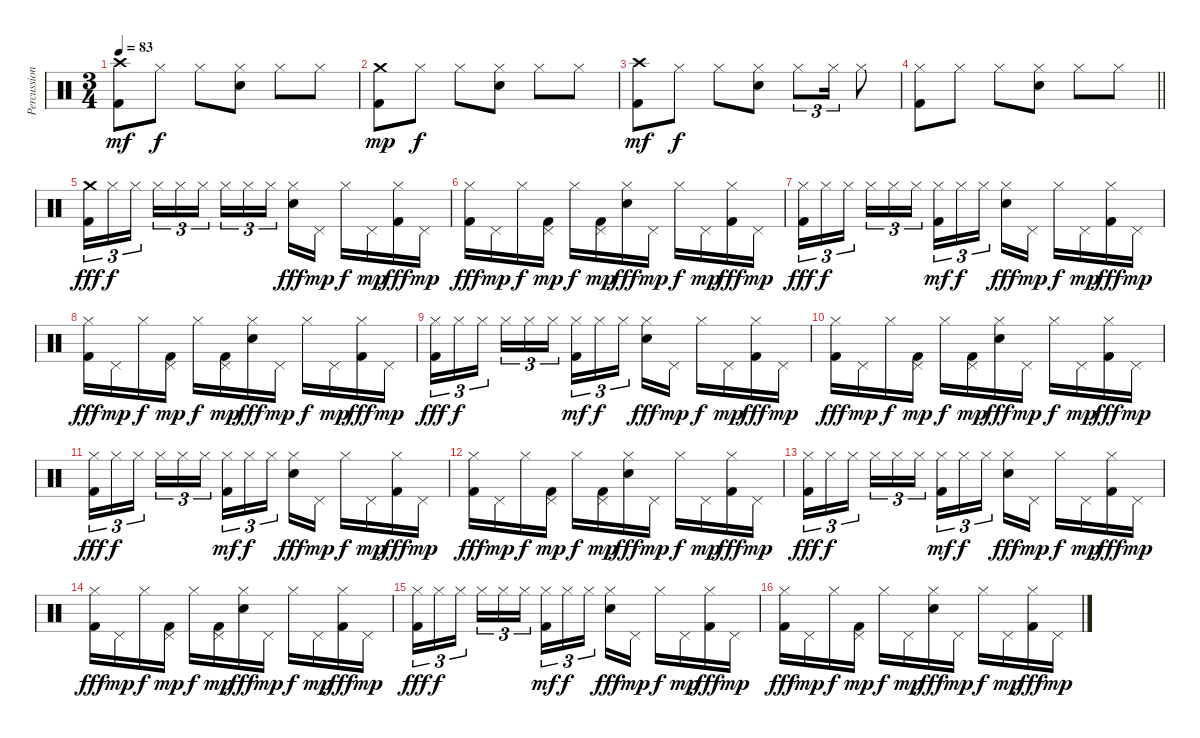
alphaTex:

\track ("Percussions" "Percussion") {instrument percussion}
\staff {score}
\articulation defaults
\ts (3 4)
\tempo 83
\clef neutral
\ks c
("Kick (hit) 2" "Crash high (hit)").8{dy mf} "Hi-Hat (closed)".8{dy f} "Hi-Hat (closed)".8 ("Electric Snare (hit)" "Hi-Hat (closed)").8 "Hi-Hat (closed)".8 "Hi-Hat (closed)".8 |
("Kick (hit) 2" "Crash medium (hit)").8{dy mp} "Hi-Hat (closed)".8{dy f} "Hi-Hat (closed)".8 ("Electric Snare (hit)" "Hi-Hat (closed)").8 "Hi-Hat (closed)".8 "Hi-Hat (closed)".8 |
("Kick (hit) 2" "Crash high (hit)").8{dy mf} "Hi-Hat (closed)".8{dy f} "Hi-Hat (closed)".8 ("Electric Snare (hit)" "Hi-Hat (closed)").8 "Hi-Hat (closed)".8{tu (3 2)} "Hi-Hat (closed)".16{tu (3 2)} "Hi-Hat (closed)".8 |
\barLineRight lightlight
("Kick (hit) 2" "Hi-Hat (closed)").8 "Hi-Hat (closed)".8 "Hi-Hat (closed)".8 ("Electric Snare (hit)" "Hi-Hat (closed)").8 "Hi-Hat (closed)".8 "Hi-Hat (closed)".8 |
\section ("" "")
("Kick (hit) 2" "Crash medium (hit)").16{tu (3 2) dy fff} "Hi-Hat (closed)".16{tu (3 2) dy f} "Hi-Hat (closed)".16{tu (3 2) beam splitsecondary} "Hi-Hat (closed)".16{tu (3 2)} "Hi-Hat (closed)".16{tu (3 2)} "Hi-Hat (closed)".16{tu (3 2)} "Hi-Hat (closed)".16{tu (3 2)} "Hi-Hat (closed)".16{tu (3 2)} "Hi-Hat (closed)".16{tu (3 2) beam splitsecondary} ("Electric Snare (hit)" "Hi-Hat (closed)").16{dy fff} "Pedal Hi-Hat (hit)".16{dy mp} "Hi-Hat (closed)".16{dy f} "Pedal Hi-Hat (hit)".16{dy mp} ("Kick (hit) 2" "Hi-Hat (closed)").16{dy fff} "Pedal Hi-Hat (hit)".16{dy mp} |
("Kick (hit) 2" "Hi-Hat (closed)").16{dy fff} "Pedal Hi-Hat (hit)".16{dy mp} "Hi-Hat (closed)".16{dy f} ("Kick (hit) 2" "Pedal Hi-Hat (hit)").16{dy mp} "Hi-Hat (closed)".16{dy f} ("Kick (hit) 2" "Pedal Hi-Hat (hit)").16{dy mp} ("Electric Snare (hit)" "Hi-Hat (closed)").16{dy fff} "Pedal Hi-Hat (hit)".16{dy mp} "Hi-Hat (closed)".16{dy f} "Pedal Hi-Hat (hit)".16{dy mp} ("Kick (hit) 2" "Hi-Hat (closed)").16{dy fff} "Pedal Hi-Hat (hit)".16{dy mp} |
("Kick (hit) 2" "Hi-Hat (closed)").16{tu (3 2) dy fff} "Hi-Hat (closed)".16{tu (3 2) dy f} "Hi-Hat (closed)".16{tu (3 2) beam splitsecondary} "Hi-Hat (closed)".16{tu (3 2)} "Hi-Hat (closed)".16{tu (3 2)} "Hi-Hat (closed)".16{tu (3 2)} ("Kick (hit) 2" "Hi-Hat (closed)").16{tu (3 2) dy mf} "Hi-Hat (closed)".16{tu (3 2) dy f} "Hi-Hat (closed)".16{tu (3 2) beam splitsecondary} ("Electric Snare (hit)" "Hi-Hat (closed)").16{dy fff} "Pedal Hi-Hat (hit)".16{dy mp} "Hi-Hat (closed)".16{dy f} "Pedal Hi-Hat (hit)".16{dy mp} ("Kick (hit) 2" "Hi-Hat (closed)").16{dy fff} "Pedal Hi-Hat (hit)".16{dy mp} |
("Kick (hit) 2" "Hi-Hat (closed)").16{dy fff} "Pedal Hi-Hat (hit)".16{dy mp} "Hi-Hat (closed)".16{dy f} ("Kick (hit) 2" "Pedal Hi-Hat (hit)").16{dy mp} "Hi-Hat (closed)".16{dy f} ("Kick (hit) 2" "Pedal Hi-Hat (hit)").16{dy mp} ("Electric Snare (hit)" "Hi-Hat (closed)").16{dy fff} "Pedal Hi-Hat (hit)".16{dy mp} "Hi-Hat (closed)".16{dy f} "Pedal Hi-Hat (hit)".16{dy mp} ("Kick (hit) 2" "Hi-Hat (closed)").16{dy fff} "Pedal Hi-Hat (hit)".16{dy mp} |
("Kick (hit) 2" "Hi-Hat (closed)").16{tu (3 2) dy fff} "Hi-Hat (closed)".16{tu (3 2) dy f} "Hi-Hat (closed)".16{tu (3 2) beam splitsecondary} "Hi-Hat (closed)".16{tu (3 2)} "Hi-Hat (closed)".16{tu (3 2)} "Hi-Hat (closed)".16{tu (3 2)} ("Kick (hit) 2" "Hi-Hat (closed)").16{tu (3 2) dy mf} "Hi-Hat (closed)".16{tu (3 2) dy f} "Hi-Hat (closed)".16{tu (3 2) beam splitsecondary} ("Electric Snare (hit)" "Hi-Hat (closed)").16{dy fff} "Pedal Hi-Hat (hit)".16{dy mp} "Hi-Hat (closed)".16{dy f} "Pedal Hi-Hat (hit)".16{dy mp} ("Kick (hit) 2" "Hi-Hat (closed)").16{dy fff} "Pedal Hi-Hat (hit)".16{dy mp} |
("Kick (hit) 2" "Hi-Hat (closed)").16{dy fff} "Pedal Hi-Hat (hit)".16{dy mp} "Hi-Hat (closed)".16{dy f} ("Kick (hit) 2" "Pedal Hi-Hat (hit)").16{dy mp} "Hi-Hat (closed)".16{dy f} ("Kick (hit) 2" "Pedal Hi-Hat (hit)").16{dy mp} ("Electric Snare (hit)" "Hi-Hat (closed)").16{dy fff} "Pedal Hi-Hat (hit)".16{dy mp} "Hi-Hat (closed)".16{dy f} "Pedal Hi-Hat (hit)".16{dy mp} ("Kick (hit) 2" "Hi-Hat (closed)").16{dy fff} "Pedal Hi-Hat (hit)".16{dy mp} |
("Kick (hit) 2" "Hi-Hat (closed)").16{tu (3 2) dy fff} "Hi-Hat (closed)".16{tu (3 2) dy f} "Hi-Hat (closed)".16{tu (3 2) beam splitsecondary} "Hi-Hat (closed)".16{tu (3 2)} "Hi-Hat (closed)".16{tu (3 2)} "Hi-Hat (closed)".16{tu (3 2)} ("Kick (hit) 2" "Hi-Hat (closed)").16{tu (3 2) dy mf} "Hi-Hat (closed)".16{tu (3 2) dy f} "Hi-Hat (closed)".16{tu (3 2) beam splitsecondary} ("Electric Snare (hit)" "Hi-Hat (closed)").16{dy fff} "Pedal Hi-Hat (hit)".16{dy mp} "Hi-Hat (closed)".16{dy f} "Pedal Hi-Hat (hit)".16{dy mp} ("Kick (hit) 2" "Hi-Hat (closed)").16{dy fff} "Pedal Hi-Hat (hit)".16{dy mp} |
("Kick (hit) 2" "Hi-Hat (closed)").16{dy fff} "Pedal Hi-Hat (hit)".16{dy mp} "Hi-Hat (closed)".16{dy f} ("Kick (hit) 2" "Pedal Hi-Hat (hit)").16{dy mp} "Hi-Hat (closed)".16{dy f} ("Kick (hit) 2" "Pedal Hi-Hat (hit)").16{dy mp} ("Electric Snare (hit)" "Hi-Hat (closed)").16{dy fff} "Pedal Hi-Hat (hit)".16{dy mp} "Hi-Hat (closed)".16{dy f} "Pedal Hi-Hat (hit)".16{dy mp} ("Kick (hit) 2" "Hi-Hat (closed)").16{dy fff} "Pedal Hi-Hat (hit)".16{dy mp} |
("Kick (hit) 2" "Hi-Hat (closed)").16{tu (3 2) dy fff} "Hi-Hat (closed)".16{tu (3 2) dy f} "Hi-Hat (closed)".16{tu (3 2) beam splitsecondary} "Hi-Hat (closed)".16{tu (3 2)} "Hi-Hat (closed)".16{tu (3 2)} "Hi-Hat (closed)".16{tu (3 2)} ("Kick (hit) 2" "Hi-Hat (closed)").16{tu (3 2) dy mf} "Hi-Hat (closed)".16{tu (3 2) dy f} "Hi-Hat (closed)".16{tu (3 2) beam splitsecondary} ("Electric Snare (hit)" "Hi-Hat (closed)").16{dy fff} "Pedal Hi-Hat (hit)".16{dy mp} "Hi-Hat (closed)".16{dy f} "Pedal Hi-Hat (hit)".16{dy mp} ("Kick (hit) 2" "Hi-Hat (closed)").16{dy fff} "Pedal Hi-Hat (hit)".16{dy mp} |
("Kick (hit) 2" "Hi-Hat (closed)").16{dy fff} "Pedal Hi-Hat (hit)".16{dy mp} "Hi-Hat (closed)".16{dy f} ("Kick (hit) 2" "Pedal Hi-Hat (hit)").16{dy mp} "Hi-Hat (closed)".16{dy f} ("Kick (hit) 2" "Pedal Hi-Hat (hit)").16{dy mp} ("Electric Snare (hit)" "Hi-Hat (closed)").16{dy fff} "Pedal Hi-Hat (hit)".16{dy mp} "Hi-Hat (closed)".16{dy f} "Pedal Hi-Hat (hit)".16{dy mp} ("Kick (hit) 2" "Hi-Hat (closed)").16{dy fff} "Pedal Hi-Hat (hit)".16{dy mp} |
("Kick (hit) 2" "Hi-Hat (closed)").16{tu (3 2) dy fff} "Hi-Hat (closed)".16{tu (3 2) dy f} "Hi-Hat (closed)".16{tu (3 2) beam splitsecondary} "Hi-Hat (closed)".16{tu (3 2)} "Hi-Hat (closed)".16{tu (3 2)} "Hi-Hat (closed)".16{tu (3 2)} ("Kick (hit) 2" "Hi-Hat (closed)").16{tu (3 2) dy mf} "Hi-Hat (closed)".16{tu (3 2) dy f} "Hi-Hat (closed)".16{tu (3 2) beam splitsecondary} ("Electric Snare (hit)" "Hi-Hat (closed)").16{dy fff} "Pedal Hi-Hat (hit)".16{dy mp} "Hi-Hat (closed)".16{dy f} "Pedal Hi-Hat (hit)".16{dy mp} ("Kick (hit) 2" "Hi-Hat (closed)").16{dy fff} "Pedal Hi-Hat (hit)".16{dy mp} |
("Kick (hit) 2" "Hi-Hat (closed)").16{dy fff} "Pedal Hi-Hat (hit)".16{dy mp} "Hi-Hat (closed)".16{dy f} ("Kick (hit) 2" "Pedal Hi-Hat (hit)").16{dy mp} "Hi-Hat (closed)".16{dy f} "Pedal Hi-Hat (hit)".16{dy mp} ("Electric Snare (hit)" "Hi-Hat (closed)").16{dy fff} "Pedal Hi-Hat (hit)".16{dy mp} "Hi-Hat (closed)".16{dy f} "Pedal Hi-Hat (hit)".16{dy mp} ("Kick (hit) 2" "Hi-Hat (closed)").16{dy fff} "Pedal Hi-Hat (hit)".16{dy mp}
